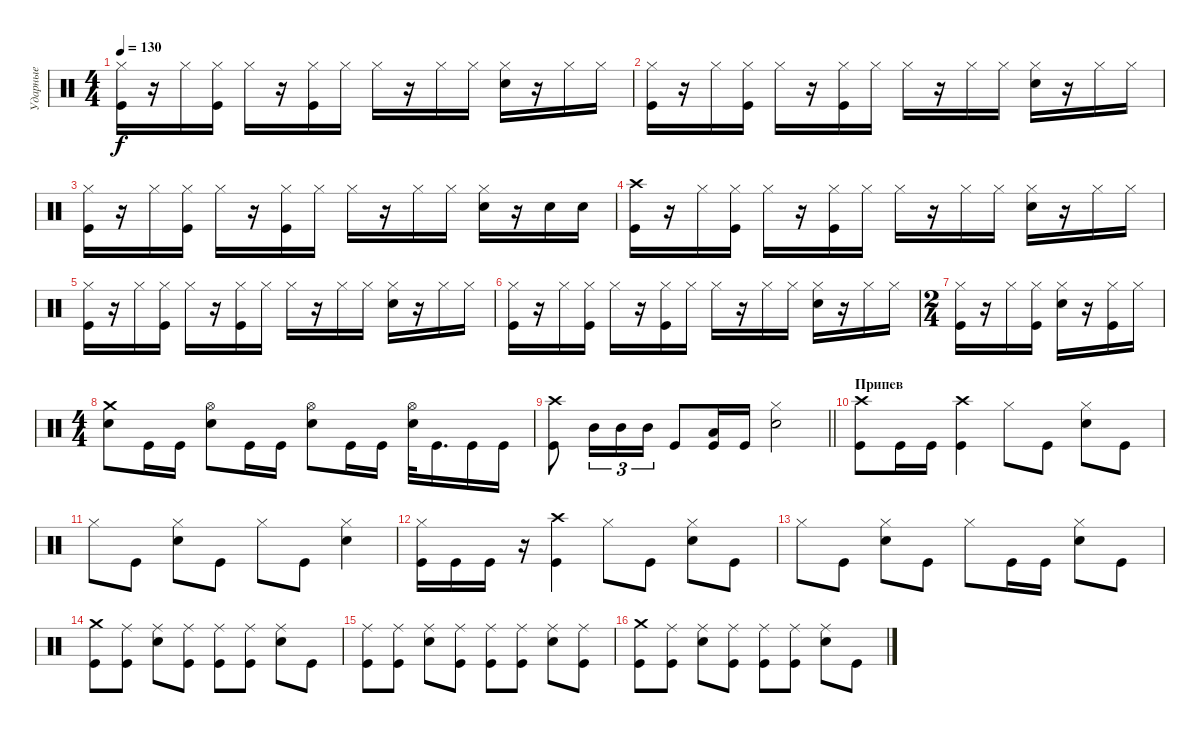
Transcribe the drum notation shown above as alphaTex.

\track ("Ударные" "Ударные") {instrument percussion}
\staff {score}
\articulation defaults
\ts (4 4)
\tempo 130
\clef neutral
\ks c
("Hi-Hat (closed)" "Kick (hit)").16{dy f} r.16 "Hi-Hat (closed)".16 ("Hi-Hat (closed)" "Kick (hit)").16 "Hi-Hat (closed)".16 r.16 ("Hi-Hat (closed)" "Kick (hit)").16 "Hi-Hat (closed)".16 "Hi-Hat (closed)".16 r.16 "Hi-Hat (closed)".16 "Hi-Hat (closed)".16 ("Hi-Hat (closed)" "Snare (hit) 2").16 r.16 "Hi-Hat (closed)".16 "Hi-Hat (closed)".16 |
("Hi-Hat (closed)" "Kick (hit)").16 r.16 "Hi-Hat (closed)".16 ("Hi-Hat (closed)" "Kick (hit)").16 "Hi-Hat (closed)".16 r.16 ("Hi-Hat (closed)" "Kick (hit)").16 "Hi-Hat (closed)".16 "Hi-Hat (closed)".16 r.16 "Hi-Hat (closed)".16 "Hi-Hat (closed)".16 ("Hi-Hat (closed)" "Snare (hit) 2").16 r.16 "Hi-Hat (closed)".16 "Hi-Hat (closed)".16 |
("Hi-Hat (closed)" "Kick (hit)").16 r.16 "Hi-Hat (closed)".16 ("Hi-Hat (closed)" "Kick (hit)").16 "Hi-Hat (closed)".16 r.16 ("Hi-Hat (closed)" "Kick (hit)").16 "Hi-Hat (closed)".16 "Hi-Hat (closed)".16 r.16 "Hi-Hat (closed)".16 "Hi-Hat (closed)".16 ("Hi-Hat (closed)" "Snare (hit) 2").16 r.16 "Snare (hit) 2".16 "Snare (hit) 2".16 |
("Crash high (hit)" "Kick (hit)").16 r.16 "Hi-Hat (closed)".16 ("Hi-Hat (closed)" "Kick (hit)").16 "Hi-Hat (closed)".16 r.16 ("Hi-Hat (closed)" "Kick (hit)").16 "Hi-Hat (closed)".16 "Hi-Hat (closed)".16 r.16 "Hi-Hat (closed)".16 "Hi-Hat (closed)".16 ("Hi-Hat (closed)" "Snare (hit) 2").16 r.16 "Hi-Hat (closed)".16 "Hi-Hat (closed)".16 |
("Hi-Hat (closed)" "Kick (hit)").16 r.16 "Hi-Hat (closed)".16 ("Hi-Hat (closed)" "Kick (hit)").16 "Hi-Hat (closed)".16 r.16 ("Hi-Hat (closed)" "Kick (hit)").16 "Hi-Hat (closed)".16 "Hi-Hat (closed)".16 r.16 "Hi-Hat (closed)".16 "Hi-Hat (closed)".16 ("Hi-Hat (closed)" "Snare (hit) 2").16 r.16 "Hi-Hat (closed)".16 "Hi-Hat (closed)".16 |
("Hi-Hat (closed)" "Kick (hit)").16 r.16 "Hi-Hat (closed)".16 ("Hi-Hat (closed)" "Kick (hit)").16 "Hi-Hat (closed)".16 r.16 ("Hi-Hat (closed)" "Kick (hit)").16 "Hi-Hat (closed)".16 "Hi-Hat (closed)".16 r.16 "Hi-Hat (closed)".16 "Hi-Hat (closed)".16 ("Hi-Hat (closed)" "Snare (hit) 2").16 r.16 "Hi-Hat (closed)".16 "Hi-Hat (closed)".16 |
\ts (2 4)
("Hi-Hat (closed)" "Kick (hit)").16 r.16 "Hi-Hat (closed)".16 ("Hi-Hat (closed)" "Kick (hit)").16 ("Hi-Hat (closed)" "Snare (hit) 2").16 r.16 ("Hi-Hat (closed)" "Kick (hit)").16 "Hi-Hat (closed)".16 |
\ts (4 4)
("Crash medium (hit)" "Snare (hit) 2").8 "Kick (hit)".16 "Kick (hit)".16 ("Hi-Hat (open)" "Snare (hit) 2").8 "Kick (hit)".16 "Kick (hit)".16 ("Hi-Hat (open)" "Snare (hit) 2").8 "Kick (hit)".16 "Kick (hit)".16 ("Hi-Hat (open)" "Snare (hit) 2").32 "Kick (hit)".16{d} "Kick (hit)".16 "Kick (hit)".16 |
\barLineRight lightlight
("Crash high (hit)" "Kick (hit)").8 "Mid Tom (hit)".16{tu (3 2)} "Mid Tom (hit)".16{tu (3 2)} "Mid Tom (hit)".16{tu (3 2)} "Kick (hit)".8 ("Low Tom (hit)" "Kick (hit)").16 "Kick (hit)".16 ("Hi-Hat (closed)" "Snare (hit) 2").2 |
\section ("" "Припев")
("Crash high (hit)" "Kick (hit)").8 "Kick (hit)".16 "Kick (hit)".16 ("Crash high (hit)" "Kick (hit)").4 "Hi-Hat (closed)".8 "Kick (hit)".8 ("Hi-Hat (closed)" "Snare (hit) 2").8 "Kick (hit)".8 |
"Hi-Hat (closed)".8 "Kick (hit)".8 ("Hi-Hat (closed)" "Snare (hit) 2").8 "Kick (hit)".8 "Hi-Hat (closed)".8 "Kick (hit)".8 ("Hi-Hat (closed)" "Snare (hit) 2").4 |
("Hi-Hat (closed)" "Kick (hit)").16 "Kick (hit)".16 "Kick (hit)".16 r.16 ("Crash high (hit)" "Kick (hit)").4 "Hi-Hat (closed)".8 "Kick (hit)".8 ("Hi-Hat (closed)" "Snare (hit) 2").8 "Kick (hit)".8 |
"Hi-Hat (closed)".8 "Kick (hit)".8 ("Hi-Hat (closed)" "Snare (hit) 2").8 "Kick (hit)".8 "Hi-Hat (closed)".8 "Kick (hit)".16 "Kick (hit)".16 ("Hi-Hat (closed)" "Snare (hit) 2").8 "Kick (hit)".8 |
("Crash medium (hit)" "Kick (hit)").8 ("Ride (middle)" "Kick (hit)").8 ("Ride (middle)" "Snare (hit) 2").8 ("Ride (middle)" "Kick (hit)").8 ("Ride (middle)" "Kick (hit)").8 ("Ride (middle)" "Kick (hit)").8 ("Ride (middle)" "Snare (hit) 2").8 "Kick (hit)".8 |
("Ride (middle)" "Kick (hit)").8 ("Ride (middle)" "Kick (hit)").8 ("Ride (middle)" "Snare (hit) 2").8 ("Ride (middle)" "Kick (hit)").8 ("Ride (middle)" "Kick (hit)").8 ("Ride (middle)" "Kick (hit)").8 ("Ride (middle)" "Snare (hit) 2").8 ("Ride (middle)" "Kick (hit)").8 |
("Crash medium (hit)" "Kick (hit)").8 ("Ride (middle)" "Kick (hit)").8 ("Ride (middle)" "Snare (hit) 2").8 ("Ride (middle)" "Kick (hit)").8 ("Ride (middle)" "Kick (hit)").8 ("Ride (middle)" "Kick (hit)").8 ("Ride (middle)" "Snare (hit) 2").8 "Kick (hit)".8
